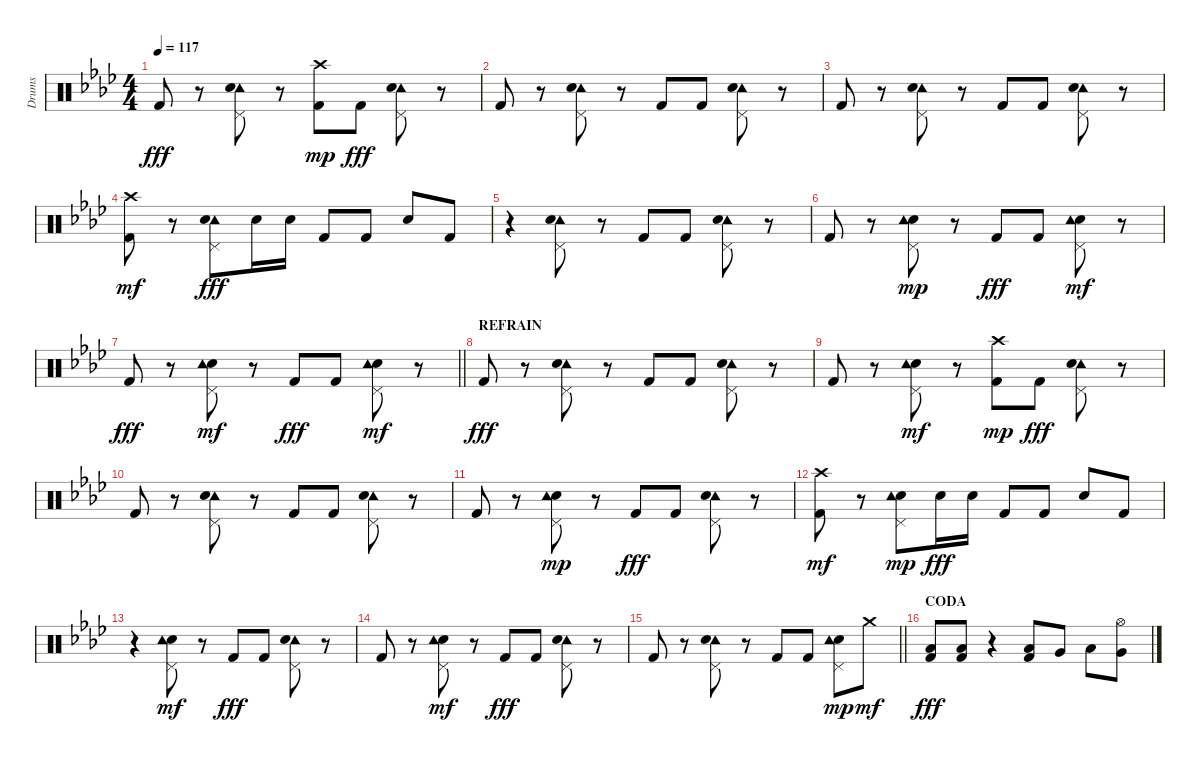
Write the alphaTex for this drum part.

\track ("Drums" "Drums") {instrument percussion}
\staff {score}
\articulation defaults
\ts (4 4)
\tempo 117
\clef neutral
\ks ab "Kick (hit) 2".8{dy fff}
r.8 ("Tambourine (hit)" "Pedal Hi-Hat (hit)" "Snare (hit) 2").8 r.8 ("Kick (hit) 2" "Crash high (hit)").8{dy mp} "Kick (hit) 2".8{dy fff} ("Tambourine (hit)" "Pedal Hi-Hat (hit)" "Snare (hit) 2").8 r.8 |
"Kick (hit) 2".8 r.8 ("Tambourine (hit)" "Pedal Hi-Hat (hit)" "Snare (hit) 2").8 r.8 "Kick (hit) 2".8 "Kick (hit) 2".8 ("Tambourine (hit)" "Pedal Hi-Hat (hit)" "Snare (hit) 2").8 r.8 |
"Kick (hit) 2".8 r.8 ("Tambourine (hit)" "Pedal Hi-Hat (hit)" "Snare (hit) 2").8 r.8 "Kick (hit) 2".8 "Kick (hit) 2".8 ("Tambourine (hit)" "Pedal Hi-Hat (hit)" "Snare (hit) 2").8 r.8 |
("Kick (hit) 2" "Crash high (hit)").8{dy mf} r.8 ("Tambourine (hit)" "Pedal Hi-Hat (hit)" "Snare (hit) 2").8{dy fff} "Snare (hit) 2".16 "Snare (hit) 2".16 "Kick (hit) 2".8 "Kick (hit) 2".8 "Snare (hit) 2".8 "Kick (hit) 2".8 |
r.4 ("Tambourine (hit)" "Pedal Hi-Hat (hit)" "Snare (hit) 2").8 r.8 "Kick (hit) 2".8 "Kick (hit) 2".8 ("Tambourine (hit)" "Pedal Hi-Hat (hit)" "Snare (hit) 2").8 r.8 |
"Kick (hit) 2".8 r.8 ("Pedal Hi-Hat (hit)" "Snare (hit) 2" "Tambourine (hit)").8{dy mp} r.8 "Kick (hit) 2".8{dy fff} "Kick (hit) 2".8 ("Snare (hit) 2" "Tambourine (hit)" "Pedal Hi-Hat (hit)").8{dy mf} r.8 |
\barLineRight lightlight "Kick (hit) 2".8{dy fff}
r.8 ("Snare (hit) 2" "Tambourine (hit)" "Pedal Hi-Hat (hit)").8{dy mf} r.8 "Kick (hit) 2".8{dy fff} "Kick (hit) 2".8 ("Snare (hit) 2" "Tambourine (hit)" "Pedal Hi-Hat (hit)").8{dy mf} r.8 |
\section ("" "REFRAIN")
"Kick (hit) 2".8{dy fff} r.8 ("Tambourine (hit)" "Pedal Hi-Hat (hit)" "Snare (hit) 2").8 r.8 "Kick (hit) 2".8 "Kick (hit) 2".8 ("Tambourine (hit)" "Pedal Hi-Hat (hit)" "Snare (hit) 2").8 r.8 |
"Kick (hit) 2".8 r.8 ("Snare (hit) 2" "Tambourine (hit)" "Pedal Hi-Hat (hit)").8{dy mf} r.8 ("Kick (hit) 2" "Crash high (hit)").8{dy mp} "Kick (hit) 2".8{dy fff} ("Tambourine (hit)" "Pedal Hi-Hat (hit)" "Snare (hit) 2").8 r.8 |
"Kick (hit) 2".8 r.8 ("Tambourine (hit)" "Pedal Hi-Hat (hit)" "Snare (hit) 2").8 r.8 "Kick (hit) 2".8 "Kick (hit) 2".8 ("Tambourine (hit)" "Pedal Hi-Hat (hit)" "Snare (hit) 2").8 r.8 |
"Kick (hit) 2".8 r.8 ("Pedal Hi-Hat (hit)" "Snare (hit) 2" "Tambourine (hit)").8{dy mp} r.8 "Kick (hit) 2".8{dy fff} "Kick (hit) 2".8 ("Tambourine (hit)" "Pedal Hi-Hat (hit)" "Snare (hit) 2").8 r.8 |
("Kick (hit) 2" "Crash high (hit)").8{dy mf} r.8 ("Pedal Hi-Hat (hit)" "Snare (hit) 2" "Tambourine (hit)").8{dy mp} "Snare (hit) 2".16{dy fff} "Snare (hit) 2".16 "Kick (hit) 2".8 "Kick (hit) 2".8 "Snare (hit) 2".8 "Kick (hit) 2".8 |
r.4 ("Snare (hit) 2" "Tambourine (hit)" "Pedal Hi-Hat (hit)").8{dy mf} r.8 "Kick (hit) 2".8{dy fff} "Kick (hit) 2".8 ("Tambourine (hit)" "Pedal Hi-Hat (hit)" "Snare (hit) 2").8 r.8 |
"Kick (hit) 2".8 r.8 ("Snare (hit) 2" "Tambourine (hit)" "Pedal Hi-Hat (hit)").8{dy mf} r.8 "Kick (hit) 2".8{dy fff} "Kick (hit) 2".8 ("Tambourine (hit)" "Pedal Hi-Hat (hit)" "Snare (hit) 2").8 r.8 |
\barLineRight lightlight "Kick (hit) 2".8
r.8 ("Tambourine (hit)" "Pedal Hi-Hat (hit)" "Snare (hit) 2").8 r.8 "Kick (hit) 2".8 "Kick (hit) 2".8 ("Pedal Hi-Hat (hit)" "Snare (hit) 2" "Tambourine (hit)").8{dy mp} "Crash medium (hit)".8{dy mf} |
\section ("" "CODA")
("Low Floor Tom (hit)" "Kick (hit) 2").8{dy fff} ("Kick (hit) 2" "Low Floor Tom (hit)").8 r.4 ("Low Floor Tom (hit)" "Kick (hit) 2").8 "Very Low Tom (hit)".8 "Low Floor Tom (hit)".8 ("Hi-Hat (open)" "Very Low Tom (hit)").8
